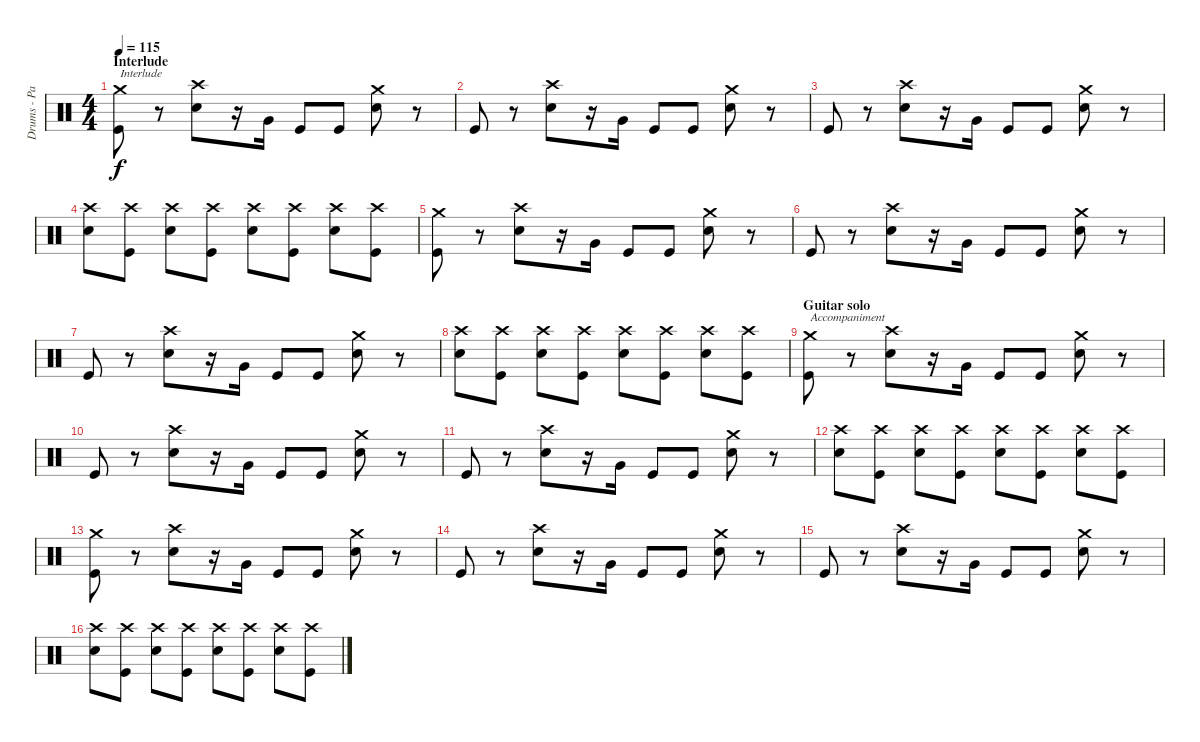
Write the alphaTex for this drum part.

\track ("Drums - Paul Thomson" "Drums - Pa") {instrument percussion}
\staff {score}
\articulation defaults
\ts (4 4)
\section ("" "Interlude")
\tempo 115
\clef neutral
\ks c
("Kick (hit)" "Crash medium (hit)").8{txt "Interlude" dy f} r.8 ("Electric Snare (hit)" "Crash high (hit)").8 r.16 "Very Low Tom (hit)".16 "Kick (hit)".8 "Kick (hit)".8 ("Electric Snare (hit)" "Crash medium (hit)").8 r.8 |
"Kick (hit)".8 r.8 ("Electric Snare (hit)" "Crash high (hit)").8 r.16 "Very Low Tom (hit)".16 "Kick (hit)".8 "Kick (hit)".8 ("Electric Snare (hit)" "Crash medium (hit)").8 r.8 |
"Kick (hit)".8 r.8 ("Electric Snare (hit)" "Crash high (hit)").8 r.16 "Very Low Tom (hit)".16 "Kick (hit)".8 "Kick (hit)".8 ("Electric Snare (hit)" "Crash medium (hit)").8 r.8 |
("Electric Snare (hit)" "Crash high (hit)").8 ("Kick (hit)" "Crash high (hit)").8 ("Electric Snare (hit)" "Crash high (hit)").8 ("Kick (hit)" "Crash high (hit)").8 ("Electric Snare (hit)" "Crash high (hit)").8 ("Kick (hit)" "Crash high (hit)").8 ("Electric Snare (hit)" "Crash high (hit)").8 ("Kick (hit)" "Crash high (hit)").8 |
("Kick (hit)" "Crash medium (hit)").8 r.8 ("Electric Snare (hit)" "Crash high (hit)").8 r.16 "Very Low Tom (hit)".16 "Kick (hit)".8 "Kick (hit)".8 ("Electric Snare (hit)" "Crash medium (hit)").8 r.8 |
"Kick (hit)".8 r.8 ("Electric Snare (hit)" "Crash high (hit)").8 r.16 "Very Low Tom (hit)".16 "Kick (hit)".8 "Kick (hit)".8 ("Electric Snare (hit)" "Crash medium (hit)").8 r.8 |
"Kick (hit)".8 r.8 ("Electric Snare (hit)" "Crash high (hit)").8 r.16 "Very Low Tom (hit)".16 "Kick (hit)".8 "Kick (hit)".8 ("Electric Snare (hit)" "Crash medium (hit)").8 r.8 |
("Electric Snare (hit)" "Crash high (hit)").8 ("Kick (hit)" "Crash high (hit)").8 ("Electric Snare (hit)" "Crash high (hit)").8 ("Kick (hit)" "Crash high (hit)").8 ("Electric Snare (hit)" "Crash high (hit)").8 ("Kick (hit)" "Crash high (hit)").8 ("Electric Snare (hit)" "Crash high (hit)").8 ("Kick (hit)" "Crash high (hit)").8 |
\section ("" "Guitar solo")
("Kick (hit)" "Crash medium (hit)").8{txt "Accompaniment"} r.8 ("Electric Snare (hit)" "Crash high (hit)").8 r.16 "Very Low Tom (hit)".16 "Kick (hit)".8 "Kick (hit)".8 ("Electric Snare (hit)" "Crash medium (hit)").8 r.8 |
"Kick (hit)".8 r.8 ("Electric Snare (hit)" "Crash high (hit)").8 r.16 "Very Low Tom (hit)".16 "Kick (hit)".8 "Kick (hit)".8 ("Electric Snare (hit)" "Crash medium (hit)").8 r.8 |
"Kick (hit)".8 r.8 ("Electric Snare (hit)" "Crash high (hit)").8 r.16 "Very Low Tom (hit)".16 "Kick (hit)".8 "Kick (hit)".8 ("Electric Snare (hit)" "Crash medium (hit)").8 r.8 |
("Electric Snare (hit)" "Crash high (hit)").8 ("Kick (hit)" "Crash high (hit)").8 ("Electric Snare (hit)" "Crash high (hit)").8 ("Kick (hit)" "Crash high (hit)").8 ("Electric Snare (hit)" "Crash high (hit)").8 ("Kick (hit)" "Crash high (hit)").8 ("Electric Snare (hit)" "Crash high (hit)").8 ("Kick (hit)" "Crash high (hit)").8 |
("Kick (hit)" "Crash medium (hit)").8 r.8 ("Electric Snare (hit)" "Crash high (hit)").8 r.16 "Very Low Tom (hit)".16 "Kick (hit)".8 "Kick (hit)".8 ("Electric Snare (hit)" "Crash medium (hit)").8 r.8 |
"Kick (hit)".8 r.8 ("Electric Snare (hit)" "Crash high (hit)").8 r.16 "Very Low Tom (hit)".16 "Kick (hit)".8 "Kick (hit)".8 ("Electric Snare (hit)" "Crash medium (hit)").8 r.8 |
"Kick (hit)".8 r.8 ("Electric Snare (hit)" "Crash high (hit)").8 r.16 "Very Low Tom (hit)".16 "Kick (hit)".8 "Kick (hit)".8 ("Electric Snare (hit)" "Crash medium (hit)").8 r.8 |
("Electric Snare (hit)" "Crash high (hit)").8 ("Kick (hit)" "Crash high (hit)").8 ("Electric Snare (hit)" "Crash high (hit)").8 ("Kick (hit)" "Crash high (hit)").8 ("Electric Snare (hit)" "Crash high (hit)").8 ("Kick (hit)" "Crash high (hit)").8 ("Electric Snare (hit)" "Crash high (hit)").8 ("Kick (hit)" "Crash high (hit)").8
